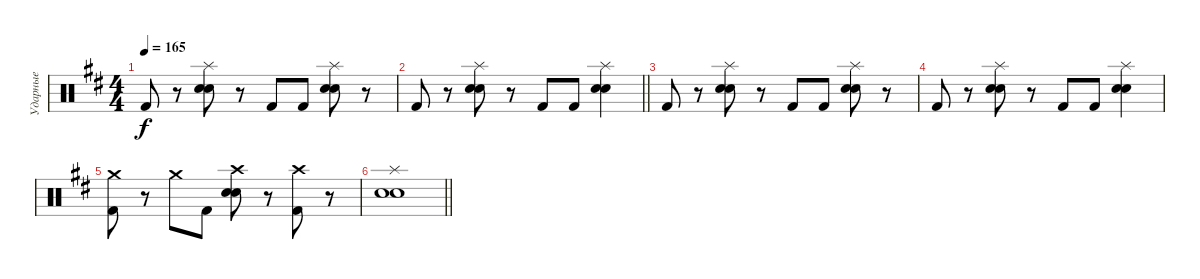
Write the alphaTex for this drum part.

\track ("Ударные" "Ударные") {instrument percussion}
\staff {score}
\articulation defaults
\ts (4 4)
\tempo 165
\clef neutral
\ks bminor "Kick (hit) 2".8{dy f}
r.8 ("Splash (hit)" "Electric Snare (hit)" "Snare (hit) 2").8 r.8 "Kick (hit) 2".8 "Kick (hit) 2".8 ("Splash (hit)" "Electric Snare (hit)" "Snare (hit) 2").8 r.8 |
\barLineRight lightlight "Kick (hit) 2".8
r.8 ("Splash (hit)" "Electric Snare (hit)" "Snare (hit) 2").8 r.8 "Kick (hit) 2".8 "Kick (hit) 2".8 ("Splash (hit)" "Electric Snare (hit)" "Snare (hit) 2").4 |
"Kick (hit) 2".8 r.8 ("Splash (hit)" "Electric Snare (hit)" "Snare (hit) 2").8 r.8 "Kick (hit) 2".8 "Kick (hit) 2".8 ("Splash (hit)" "Electric Snare (hit)" "Snare (hit) 2").8 r.8 |
"Kick (hit) 2".8 r.8 ("Splash (hit)" "Electric Snare (hit)" "Snare (hit) 2").8 r.8 "Kick (hit) 2".8 "Kick (hit) 2".8 ("Splash (hit)" "Electric Snare (hit)" "Snare (hit) 2").4 |
("Crash medium (hit)" "Kick (hit) 2").8 r.8 "Crash medium (hit)".8 "Kick (hit) 2".8 ("Crash high (hit)" "Electric Snare (hit)" "Snare (hit) 2").8 r.8 ("Crash high (hit)" "Kick (hit) 2").8 r.8 |
\barLineRight lightlight
("Splash (hit)" "Electric Snare (hit)" "Snare (hit) 2").1
